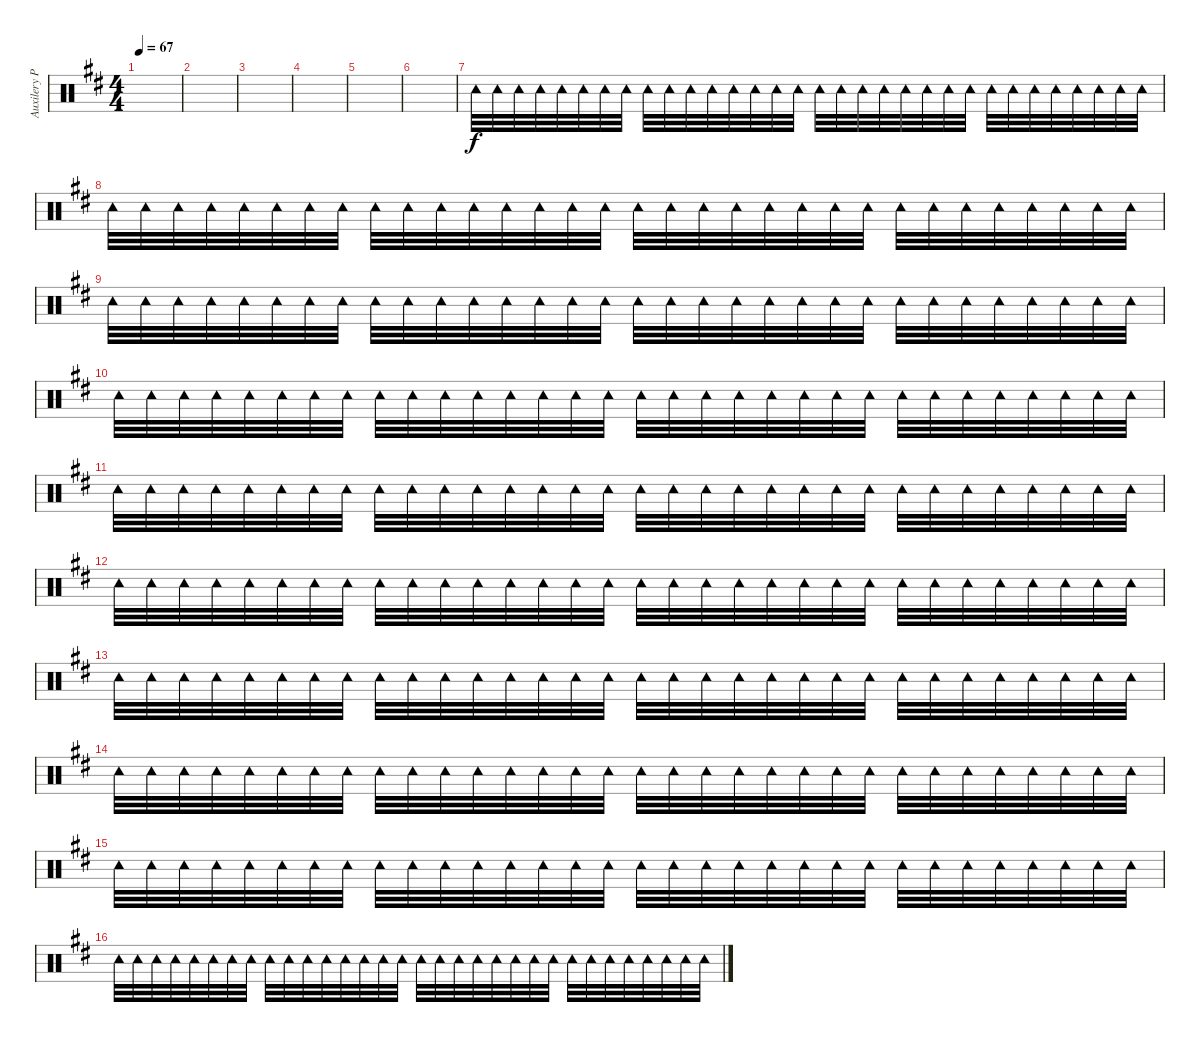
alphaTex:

\track ("Auxilery Percussion" "Auxilery P") {instrument percussion}
\staff {score}
\articulation defaults
\ts (4 4)
\tempo 67
\clef neutral
\ks bminor
|
|
|
|
|
|
"Tambourine (hit)".32 "Tambourine (hit)".32 "Tambourine (hit)".32 "Tambourine (hit)".32 "Tambourine (hit)".32 "Tambourine (hit)".32 "Tambourine (hit)".32 "Tambourine (hit)".32 "Tambourine (hit)".32 "Tambourine (hit)".32 "Tambourine (hit)".32 "Tambourine (hit)".32 "Tambourine (hit)".32 "Tambourine (hit)".32 "Tambourine (hit)".32 "Tambourine (hit)".32 "Tambourine (hit)".32 "Tambourine (hit)".32 "Tambourine (hit)".32 "Tambourine (hit)".32 "Tambourine (hit)".32 "Tambourine (hit)".32 "Tambourine (hit)".32 "Tambourine (hit)".32 "Tambourine (hit)".32 "Tambourine (hit)".32 "Tambourine (hit)".32 "Tambourine (hit)".32 "Tambourine (hit)".32 "Tambourine (hit)".32 "Tambourine (hit)".32 "Tambourine (hit)".32 |
"Tambourine (hit)".32 "Tambourine (hit)".32 "Tambourine (hit)".32 "Tambourine (hit)".32 "Tambourine (hit)".32 "Tambourine (hit)".32 "Tambourine (hit)".32 "Tambourine (hit)".32 "Tambourine (hit)".32 "Tambourine (hit)".32 "Tambourine (hit)".32 "Tambourine (hit)".32 "Tambourine (hit)".32 "Tambourine (hit)".32 "Tambourine (hit)".32 "Tambourine (hit)".32 "Tambourine (hit)".32 "Tambourine (hit)".32 "Tambourine (hit)".32 "Tambourine (hit)".32 "Tambourine (hit)".32 "Tambourine (hit)".32 "Tambourine (hit)".32 "Tambourine (hit)".32 "Tambourine (hit)".32 "Tambourine (hit)".32 "Tambourine (hit)".32 "Tambourine (hit)".32 "Tambourine (hit)".32 "Tambourine (hit)".32 "Tambourine (hit)".32 "Tambourine (hit)".32 |
"Tambourine (hit)".32 "Tambourine (hit)".32 "Tambourine (hit)".32 "Tambourine (hit)".32 "Tambourine (hit)".32 "Tambourine (hit)".32 "Tambourine (hit)".32 "Tambourine (hit)".32 "Tambourine (hit)".32 "Tambourine (hit)".32 "Tambourine (hit)".32 "Tambourine (hit)".32 "Tambourine (hit)".32 "Tambourine (hit)".32 "Tambourine (hit)".32 "Tambourine (hit)".32 "Tambourine (hit)".32 "Tambourine (hit)".32 "Tambourine (hit)".32 "Tambourine (hit)".32 "Tambourine (hit)".32 "Tambourine (hit)".32 "Tambourine (hit)".32 "Tambourine (hit)".32 "Tambourine (hit)".32 "Tambourine (hit)".32 "Tambourine (hit)".32 "Tambourine (hit)".32 "Tambourine (hit)".32 "Tambourine (hit)".32 "Tambourine (hit)".32 "Tambourine (hit)".32 |
"Tambourine (hit)".32 "Tambourine (hit)".32 "Tambourine (hit)".32 "Tambourine (hit)".32 "Tambourine (hit)".32 "Tambourine (hit)".32 "Tambourine (hit)".32 "Tambourine (hit)".32 "Tambourine (hit)".32 "Tambourine (hit)".32 "Tambourine (hit)".32 "Tambourine (hit)".32 "Tambourine (hit)".32 "Tambourine (hit)".32 "Tambourine (hit)".32 "Tambourine (hit)".32 "Tambourine (hit)".32 "Tambourine (hit)".32 "Tambourine (hit)".32 "Tambourine (hit)".32 "Tambourine (hit)".32 "Tambourine (hit)".32 "Tambourine (hit)".32 "Tambourine (hit)".32 "Tambourine (hit)".32 "Tambourine (hit)".32 "Tambourine (hit)".32 "Tambourine (hit)".32 "Tambourine (hit)".32 "Tambourine (hit)".32 "Tambourine (hit)".32 "Tambourine (hit)".32 |
"Tambourine (hit)".32 "Tambourine (hit)".32 "Tambourine (hit)".32 "Tambourine (hit)".32 "Tambourine (hit)".32 "Tambourine (hit)".32 "Tambourine (hit)".32 "Tambourine (hit)".32 "Tambourine (hit)".32 "Tambourine (hit)".32 "Tambourine (hit)".32 "Tambourine (hit)".32 "Tambourine (hit)".32 "Tambourine (hit)".32 "Tambourine (hit)".32 "Tambourine (hit)".32 "Tambourine (hit)".32 "Tambourine (hit)".32 "Tambourine (hit)".32 "Tambourine (hit)".32 "Tambourine (hit)".32 "Tambourine (hit)".32 "Tambourine (hit)".32 "Tambourine (hit)".32 "Tambourine (hit)".32 "Tambourine (hit)".32 "Tambourine (hit)".32 "Tambourine (hit)".32 "Tambourine (hit)".32 "Tambourine (hit)".32 "Tambourine (hit)".32 "Tambourine (hit)".32 |
"Tambourine (hit)".32 "Tambourine (hit)".32 "Tambourine (hit)".32 "Tambourine (hit)".32 "Tambourine (hit)".32 "Tambourine (hit)".32 "Tambourine (hit)".32 "Tambourine (hit)".32 "Tambourine (hit)".32 "Tambourine (hit)".32 "Tambourine (hit)".32 "Tambourine (hit)".32 "Tambourine (hit)".32 "Tambourine (hit)".32 "Tambourine (hit)".32 "Tambourine (hit)".32 "Tambourine (hit)".32 "Tambourine (hit)".32 "Tambourine (hit)".32 "Tambourine (hit)".32 "Tambourine (hit)".32 "Tambourine (hit)".32 "Tambourine (hit)".32 "Tambourine (hit)".32 "Tambourine (hit)".32 "Tambourine (hit)".32 "Tambourine (hit)".32 "Tambourine (hit)".32 "Tambourine (hit)".32 "Tambourine (hit)".32 "Tambourine (hit)".32 "Tambourine (hit)".32 |
"Tambourine (hit)".32 "Tambourine (hit)".32 "Tambourine (hit)".32 "Tambourine (hit)".32 "Tambourine (hit)".32 "Tambourine (hit)".32 "Tambourine (hit)".32 "Tambourine (hit)".32 "Tambourine (hit)".32 "Tambourine (hit)".32 "Tambourine (hit)".32 "Tambourine (hit)".32 "Tambourine (hit)".32 "Tambourine (hit)".32 "Tambourine (hit)".32 "Tambourine (hit)".32 "Tambourine (hit)".32 "Tambourine (hit)".32 "Tambourine (hit)".32 "Tambourine (hit)".32 "Tambourine (hit)".32 "Tambourine (hit)".32 "Tambourine (hit)".32 "Tambourine (hit)".32 "Tambourine (hit)".32 "Tambourine (hit)".32 "Tambourine (hit)".32 "Tambourine (hit)".32 "Tambourine (hit)".32 "Tambourine (hit)".32 "Tambourine (hit)".32 "Tambourine (hit)".32 |
"Tambourine (hit)".32 "Tambourine (hit)".32 "Tambourine (hit)".32 "Tambourine (hit)".32 "Tambourine (hit)".32 "Tambourine (hit)".32 "Tambourine (hit)".32 "Tambourine (hit)".32 "Tambourine (hit)".32 "Tambourine (hit)".32 "Tambourine (hit)".32 "Tambourine (hit)".32 "Tambourine (hit)".32 "Tambourine (hit)".32 "Tambourine (hit)".32 "Tambourine (hit)".32 "Tambourine (hit)".32 "Tambourine (hit)".32 "Tambourine (hit)".32 "Tambourine (hit)".32 "Tambourine (hit)".32 "Tambourine (hit)".32 "Tambourine (hit)".32 "Tambourine (hit)".32 "Tambourine (hit)".32 "Tambourine (hit)".32 "Tambourine (hit)".32 "Tambourine (hit)".32 "Tambourine (hit)".32 "Tambourine (hit)".32 "Tambourine (hit)".32 "Tambourine (hit)".32 |
"Tambourine (hit)".32 "Tambourine (hit)".32 "Tambourine (hit)".32 "Tambourine (hit)".32 "Tambourine (hit)".32 "Tambourine (hit)".32 "Tambourine (hit)".32 "Tambourine (hit)".32 "Tambourine (hit)".32 "Tambourine (hit)".32 "Tambourine (hit)".32 "Tambourine (hit)".32 "Tambourine (hit)".32 "Tambourine (hit)".32 "Tambourine (hit)".32 "Tambourine (hit)".32 "Tambourine (hit)".32 "Tambourine (hit)".32 "Tambourine (hit)".32 "Tambourine (hit)".32 "Tambourine (hit)".32 "Tambourine (hit)".32 "Tambourine (hit)".32 "Tambourine (hit)".32 "Tambourine (hit)".32 "Tambourine (hit)".32 "Tambourine (hit)".32 "Tambourine (hit)".32 "Tambourine (hit)".32 "Tambourine (hit)".32 "Tambourine (hit)".32 "Tambourine (hit)".32 |
"Tambourine (hit)".32 "Tambourine (hit)".32 "Tambourine (hit)".32 "Tambourine (hit)".32 "Tambourine (hit)".32 "Tambourine (hit)".32 "Tambourine (hit)".32 "Tambourine (hit)".32 "Tambourine (hit)".32 "Tambourine (hit)".32 "Tambourine (hit)".32 "Tambourine (hit)".32 "Tambourine (hit)".32 "Tambourine (hit)".32 "Tambourine (hit)".32 "Tambourine (hit)".32 "Tambourine (hit)".32 "Tambourine (hit)".32 "Tambourine (hit)".32 "Tambourine (hit)".32 "Tambourine (hit)".32 "Tambourine (hit)".32 "Tambourine (hit)".32 "Tambourine (hit)".32 "Tambourine (hit)".32 "Tambourine (hit)".32 "Tambourine (hit)".32 "Tambourine (hit)".32 "Tambourine (hit)".32 "Tambourine (hit)".32 "Tambourine (hit)".32 "Tambourine (hit)".32
